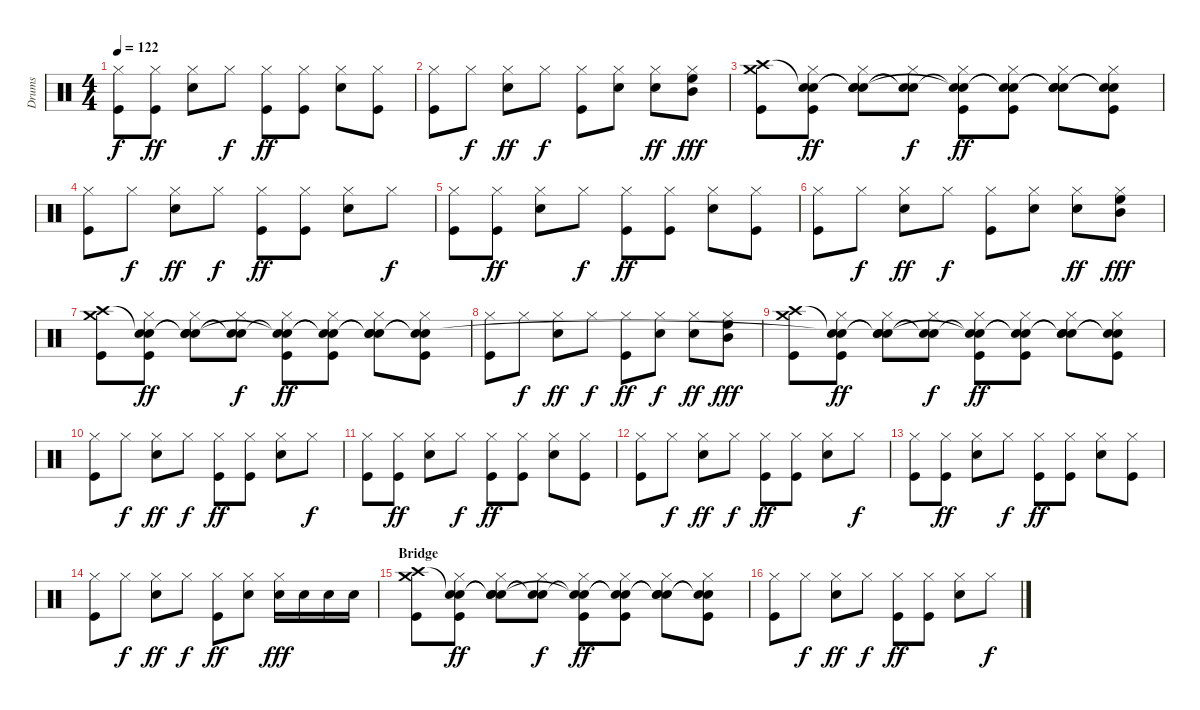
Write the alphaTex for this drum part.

\track ("Drums" "Drums") {instrument percussion}
\staff {score}
\articulation defaults
\ts (4 4)
\tempo 122
\clef neutral
\ks c
("Hi-Hat (closed)" "Kick (hit)").8{dy f} ("Hi-Hat (closed)" "Kick (hit)").8{dy ff} ("Hi-Hat (closed)" "Snare (hit) 2").8 "Hi-Hat (closed)".8{dy f} ("Hi-Hat (closed)" "Kick (hit)").8{dy ff} ("Hi-Hat (closed)" "Kick (hit)").8 ("Hi-Hat (closed)" "Snare (hit) 2").8 ("Hi-Hat (closed)" "Kick (hit)").8 |
("Hi-Hat (closed)" "Kick (hit)").8 "Hi-Hat (closed)".8{dy f} ("Hi-Hat (closed)" "Snare (hit) 2").8{dy ff} "Hi-Hat (closed)".8{dy f} ("Hi-Hat (closed)" "Kick (hit)").8 ("Hi-Hat (closed)" "Snare (hit) 2").8 ("Hi-Hat (closed)" "Snare (hit) 2").8{dy ff} ("Hi-Hat (closed)" "High Floor Tom (hit)" "Mid Tom (hit)").8{dy fff} |
("Kick (hit)" "Crash medium (hit)" "Crash high (hit)").8 ("Hi-Hat (closed)" "Kick (hit)" "Snare (hit)"{t} "Snare (hit)").8{dy ff} ("Hi-Hat (closed)" "Snare (hit) 2" "Snare (hit)"{t} "Snare (hit)"{t}).8 ("Hi-Hat (closed)" "Snare (hit)"{t} "Snare (hit)"{t}).8{dy f} ("Hi-Hat (closed)" "Kick (hit)" "Snare (hit)"{t} "Snare (hit)"{t}).8{dy ff} ("Hi-Hat (closed)" "Kick (hit)" "Snare (hit)"{t} "Snare (hit)"{t}).8 ("Hi-Hat (closed)" "Snare (hit) 2" "Snare (hit)"{t} "Snare (hit)"{t}).8 ("Hi-Hat (closed)" "Kick (hit)" "Snare (hit)"{t} "Snare (hit)"{t}).8 |
("Hi-Hat (closed)" "Kick (hit)").8 "Hi-Hat (closed)".8{dy f} ("Hi-Hat (closed)" "Snare (hit) 2").8{dy ff} "Hi-Hat (closed)".8{dy f} ("Hi-Hat (closed)" "Kick (hit)").8{dy ff} ("Hi-Hat (closed)" "Kick (hit)").8 ("Hi-Hat (closed)" "Snare (hit) 2").8 "Hi-Hat (closed)".8{dy f} |
("Hi-Hat (closed)" "Kick (hit)").8 ("Hi-Hat (closed)" "Kick (hit)").8{dy ff} ("Hi-Hat (closed)" "Snare (hit) 2").8 "Hi-Hat (closed)".8{dy f} ("Hi-Hat (closed)" "Kick (hit)").8{dy ff} ("Hi-Hat (closed)" "Kick (hit)").8 ("Hi-Hat (closed)" "Snare (hit) 2").8 ("Hi-Hat (closed)" "Kick (hit)").8 |
("Hi-Hat (closed)" "Kick (hit)").8 "Hi-Hat (closed)".8{dy f} ("Hi-Hat (closed)" "Snare (hit) 2").8{dy ff} "Hi-Hat (closed)".8{dy f} ("Hi-Hat (closed)" "Kick (hit)").8 ("Hi-Hat (closed)" "Snare (hit) 2").8 ("Hi-Hat (closed)" "Snare (hit) 2").8{dy ff} ("Hi-Hat (closed)" "High Floor Tom (hit)" "Mid Tom (hit)").8{dy fff} |
("Kick (hit)" "Crash medium (hit)" "Crash high (hit)").8 ("Hi-Hat (closed)" "Kick (hit)" "Snare (hit)"{t} "Snare (hit)").8{dy ff} ("Hi-Hat (closed)" "Snare (hit) 2" "Snare (hit)"{t} "Snare (hit)"{t}).8 ("Hi-Hat (closed)" "Snare (hit)"{t} "Snare (hit)"{t}).8{dy f} ("Hi-Hat (closed)" "Kick (hit)" "Snare (hit)"{t} "Snare (hit)"{t}).8{dy ff} ("Hi-Hat (closed)" "Kick (hit)" "Snare (hit)"{t} "Snare (hit)"{t}).8 ("Hi-Hat (closed)" "Snare (hit) 2" "Snare (hit)"{t} "Snare (hit)"{t}).8 ("Hi-Hat (closed)" "Kick (hit)" "Snare (hit)"{t} "Snare (hit)"{t}).8 |
("Hi-Hat (closed)" "Kick (hit)").8 "Hi-Hat (closed)".8{dy f} ("Hi-Hat (closed)" "Snare (hit) 2").8{dy ff} "Hi-Hat (closed)".8{dy f} ("Hi-Hat (closed)" "Kick (hit)").8{dy ff} ("Hi-Hat (closed)" "Snare (hit) 2").8{dy f} ("Hi-Hat (closed)" "Snare (hit) 2").8{dy ff} ("Hi-Hat (closed)" "High Floor Tom (hit)" "Mid Tom (hit)").8{dy fff} |
("Kick (hit)" "Crash medium (hit)" "Crash high (hit)").8 ("Hi-Hat (closed)" "Kick (hit)" "Snare (hit)"{t} "Snare (hit)"{t}).8{dy ff} ("Hi-Hat (closed)" "Snare (hit) 2" "Snare (hit)"{t} "Snare (hit)"{t}).8 ("Hi-Hat (closed)" "Snare (hit)"{t} "Snare (hit)"{t}).8{dy f} ("Hi-Hat (closed)" "Kick (hit)" "Snare (hit)"{t} "Snare (hit)"{t}).8{dy ff} ("Hi-Hat (closed)" "Kick (hit)" "Snare (hit)"{t} "Snare (hit)"{t}).8 ("Hi-Hat (closed)" "Snare (hit) 2" "Snare (hit)"{t} "Snare (hit)"{t}).8 ("Hi-Hat (closed)" "Kick (hit)" "Snare (hit)"{t} "Snare (hit)"{t}).8 |
("Hi-Hat (closed)" "Kick (hit)").8 "Hi-Hat (closed)".8{dy f} ("Hi-Hat (closed)" "Snare (hit) 2").8{dy ff} "Hi-Hat (closed)".8{dy f} ("Hi-Hat (closed)" "Kick (hit)").8{dy ff} ("Hi-Hat (closed)" "Kick (hit)").8 ("Hi-Hat (closed)" "Snare (hit) 2").8 "Hi-Hat (closed)".8{dy f} |
("Hi-Hat (closed)" "Kick (hit)").8 ("Hi-Hat (closed)" "Kick (hit)").8{dy ff} ("Hi-Hat (closed)" "Snare (hit) 2").8 "Hi-Hat (closed)".8{dy f} ("Hi-Hat (closed)" "Kick (hit)").8{dy ff} ("Hi-Hat (closed)" "Kick (hit)").8 ("Hi-Hat (closed)" "Snare (hit) 2").8 ("Hi-Hat (closed)" "Kick (hit)").8 |
("Hi-Hat (closed)" "Kick (hit)").8 "Hi-Hat (closed)".8{dy f} ("Hi-Hat (closed)" "Snare (hit) 2").8{dy ff} "Hi-Hat (closed)".8{dy f} ("Hi-Hat (closed)" "Kick (hit)").8{dy ff} ("Hi-Hat (closed)" "Kick (hit)").8 ("Hi-Hat (closed)" "Snare (hit) 2").8 "Hi-Hat (closed)".8{dy f} |
("Hi-Hat (closed)" "Kick (hit)").8 ("Hi-Hat (closed)" "Kick (hit)").8{dy ff} ("Hi-Hat (closed)" "Snare (hit) 2").8 "Hi-Hat (closed)".8{dy f} ("Hi-Hat (closed)" "Kick (hit)").8{dy ff} ("Hi-Hat (closed)" "Kick (hit)").8 ("Hi-Hat (closed)" "Snare (hit) 2").8 ("Hi-Hat (closed)" "Kick (hit)").8 |
("Hi-Hat (closed)" "Kick (hit)").8 "Hi-Hat (closed)".8{dy f} ("Hi-Hat (closed)" "Snare (hit) 2").8{dy ff} "Hi-Hat (closed)".8{dy f} ("Hi-Hat (closed)" "Kick (hit)").8{dy ff} ("Hi-Hat (closed)" "Snare (hit) 2").8 ("Hi-Hat (closed)" "Snare (hit) 2").16{dy fff} "Snare (hit) 2".16 "Snare (hit) 2".16 "Snare (hit) 2".16 |
\section ("" "Bridge")
("Kick (hit)" "Crash medium (hit)" "Crash high (hit)").8 ("Hi-Hat (closed)" "Kick (hit)" "Snare (hit)"{t} "Snare (hit)").8{dy ff} ("Hi-Hat (closed)" "Snare (hit) 2" "Snare (hit)"{t} "Snare (hit)"{t}).8 ("Hi-Hat (closed)" "Snare (hit)"{t} "Snare (hit)"{t}).8{dy f} ("Hi-Hat (closed)" "Kick (hit)" "Snare (hit)"{t} "Snare (hit)"{t}).8{dy ff} ("Hi-Hat (closed)" "Kick (hit)" "Snare (hit)"{t} "Snare (hit)"{t}).8 ("Hi-Hat (closed)" "Snare (hit) 2" "Snare (hit)"{t} "Snare (hit)"{t}).8 ("Hi-Hat (closed)" "Kick (hit)" "Snare (hit)"{t} "Snare (hit)"{t}).8 |
("Hi-Hat (closed)" "Kick (hit)").8 "Hi-Hat (closed)".8{dy f} ("Hi-Hat (closed)" "Snare (hit) 2").8{dy ff} "Hi-Hat (closed)".8{dy f} ("Hi-Hat (closed)" "Kick (hit)").8{dy ff} ("Hi-Hat (closed)" "Kick (hit)").8 ("Hi-Hat (closed)" "Snare (hit) 2").8 "Hi-Hat (closed)".8{dy f}
